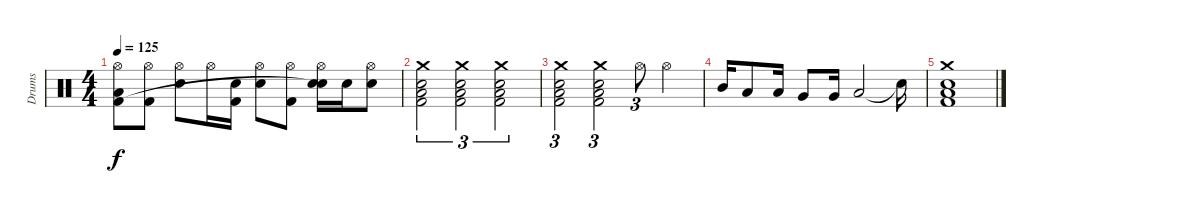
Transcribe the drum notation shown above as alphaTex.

\track ("Drums" "Drums") {instrument percussion}
\staff {score}
\articulation defaults
\ts (4 4)
\tempo 125
\clef neutral
\ks c
("Hi-Hat (open)" "Low Tom (hit)" "Kick (hit) 2").8{dy f} ("Hi-Hat (open)" "Kick (hit) 2").8 ("Hi-Hat (open)" "Snare (hit) 2").8 "Hi-Hat (open)".16 ("Snare (hit) 2" "Kick (hit) 2").16 ("Hi-Hat (open)" "Snare (hit) 2").8 ("Hi-Hat (open)" "Kick (hit) 2").8 ("Hi-Hat (open)" "Electric Snare (hit)" "Snare (hit)"{t}).16 "Electric Snare (hit)".16 ("Hi-Hat (open)" "Snare (hit) 2").8 |
("Crash medium (hit)" "Snare (hit) 2" "Low Tom (hit)" "Kick (hit) 2").2{tu (3 2)} ("Crash medium (hit)" "Snare (hit) 2" "Low Tom (hit)" "Kick (hit) 2").2{tu (3 2)} ("Crash medium (hit)" "Snare (hit) 2" "Low Tom (hit)" "Kick (hit) 2").2{tu (3 2)} |
("Crash medium (hit)" "Snare (hit) 2" "Low Tom (hit)" "Kick (hit) 2").2{tu (3 2)} ("Crash medium (hit)" "Snare (hit) 2" "Low Tom (hit)" "Kick (hit) 2").2{tu (3 2)} "Hi-Hat (open)".8{tu (3 2)} "Hi-Hat (open)".4 |
"Mid Tom (hit)".16 "Low Tom (hit)".8 "Low Tom (hit)".16 "Very Low Tom (hit)".8 "Very Low Tom (hit)".16 "Low Floor Tom (hit)".2 "Snare (hit)"{t}.16 |
("Crash medium (hit)" "Snare (hit) 2" "Low Tom (hit)" "Kick (hit) 2").1
